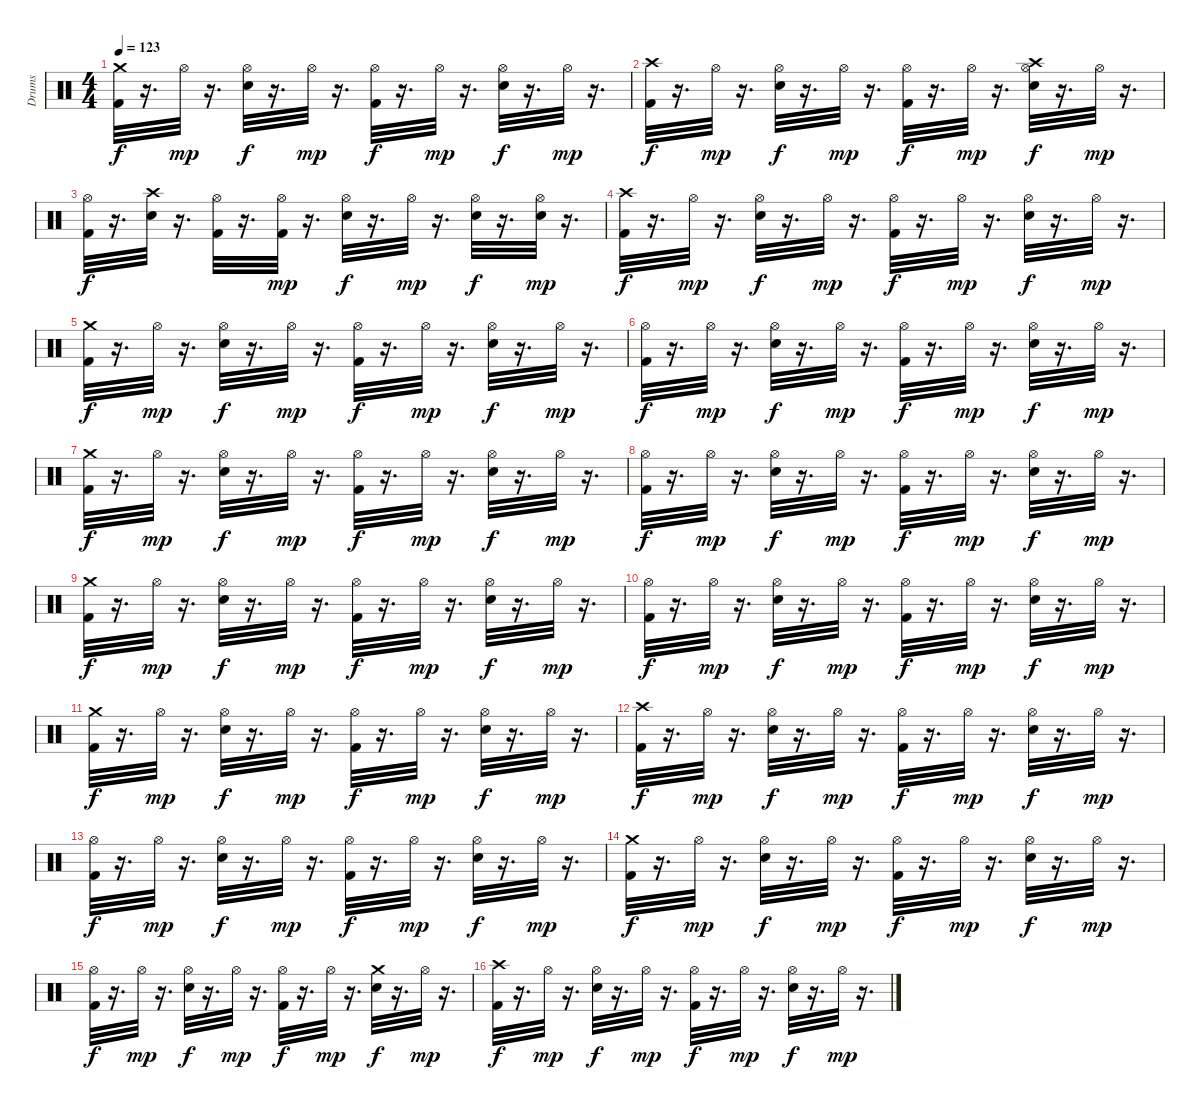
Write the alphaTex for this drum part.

\track ("Drums" "Drums") {instrument percussion}
\staff {score}
\articulation defaults
\ts (4 4)
\tempo 123
\clef neutral
\ks c
("Crash medium (hit)" "Kick (hit) 2").32{dy f} r.16{d} "Hi-Hat (open)".32{dy mp} r.16{d} ("Hi-Hat (open)" "Electric Snare (hit)").32{dy f} r.16{d} "Hi-Hat (open)".32{dy mp} r.16{d} ("Hi-Hat (open)" "Kick (hit) 2").32{dy f} r.16{d} "Hi-Hat (open)".32{dy mp} r.16{d} ("Hi-Hat (open)" "Electric Snare (hit)").32{dy f} r.16{d} "Hi-Hat (open)".32{dy mp} r.16{d} |
("Kick (hit) 2" "Crash high (hit)").32{dy f} r.16{d} "Hi-Hat (open)".32{dy mp} r.16{d} ("Hi-Hat (open)" "Electric Snare (hit)").32{dy f} r.16{d} "Hi-Hat (open)".32{dy mp} r.16{d} ("Hi-Hat (open)" "Kick (hit) 2").32{dy f} r.16{d} "Hi-Hat (open)".32{dy mp} r.16{d} ("Hi-Hat (open)" "Crash high (hit)" "Electric Snare (hit)").32{dy f} r.16{d} "Hi-Hat (open)".32{dy mp} r.16{d} |
("Hi-Hat (open)" "Kick (hit) 2").32{dy f} r.16{d} ("Crash high (hit)" "Electric Snare (hit)").32 r.16{d} ("Hi-Hat (open)" "Kick (hit) 2").32 r.16{d} ("Hi-Hat (open)" "Kick (hit) 2").32{dy mp} r.16{d} ("Hi-Hat (open)" "Electric Snare (hit)").32{dy f} r.16{d} "Hi-Hat (open)".32{dy mp} r.16{d} ("Hi-Hat (open)" "Electric Snare (hit)").32{dy f} r.16{d} ("Hi-Hat (open)" "Electric Snare (hit)").32{dy mp} r.16{d} |
("Crash high (hit)" "Kick (hit) 2").32{dy f} r.16{d} "Hi-Hat (open)".32{dy mp} r.16{d} ("Electric Snare (hit)" "Hi-Hat (open)").32{dy f} r.16{d} "Hi-Hat (open)".32{dy mp} r.16{d} ("Kick (hit) 2" "Hi-Hat (open)").32{dy f} r.16{d} "Hi-Hat (open)".32{dy mp} r.16{d} ("Electric Snare (hit)" "Hi-Hat (open)").32{dy f} r.16{d} "Hi-Hat (open)".32{dy mp} r.16{d} |
("Crash medium (hit)" "Kick (hit) 2").32{dy f} r.16{d} "Hi-Hat (open)".32{dy mp} r.16{d} ("Hi-Hat (open)" "Electric Snare (hit)").32{dy f} r.16{d} "Hi-Hat (open)".32{dy mp} r.16{d} ("Hi-Hat (open)" "Kick (hit) 2").32{dy f} r.16{d} "Hi-Hat (open)".32{dy mp} r.16{d} ("Electric Snare (hit)" "Hi-Hat (open)").32{dy f} r.16{d} "Hi-Hat (open)".32{dy mp} r.16{d} |
("Hi-Hat (open)" "Kick (hit) 2").32{dy f} r.16{d} "Hi-Hat (open)".32{dy mp} r.16{d} ("Hi-Hat (open)" "Electric Snare (hit)").32{dy f} r.16{d} "Hi-Hat (open)".32{dy mp} r.16{d} ("Hi-Hat (open)" "Kick (hit) 2").32{dy f} r.16{d} "Hi-Hat (open)".32{dy mp} r.16{d} ("Hi-Hat (open)" "Electric Snare (hit)").32{dy f} r.16{d} "Hi-Hat (open)".32{dy mp} r.16{d} |
("Crash medium (hit)" "Kick (hit) 2").32{dy f} r.16{d} "Hi-Hat (open)".32{dy mp} r.16{d} ("Hi-Hat (open)" "Electric Snare (hit)").32{dy f} r.16{d} "Hi-Hat (open)".32{dy mp} r.16{d} ("Hi-Hat (open)" "Kick (hit) 2").32{dy f} r.16{d} "Hi-Hat (open)".32{dy mp} r.16{d} ("Electric Snare (hit)" "Hi-Hat (open)").32{dy f} r.16{d} "Hi-Hat (open)".32{dy mp} r.16{d} |
("Hi-Hat (open)" "Kick (hit) 2").32{dy f} r.16{d} "Hi-Hat (open)".32{dy mp} r.16{d} ("Hi-Hat (open)" "Electric Snare (hit)").32{dy f} r.16{d} "Hi-Hat (open)".32{dy mp} r.16{d} ("Hi-Hat (open)" "Kick (hit) 2").32{dy f} r.16{d} "Hi-Hat (open)".32{dy mp} r.16{d} ("Hi-Hat (open)" "Electric Snare (hit)").32{dy f} r.16{d} "Hi-Hat (open)".32{dy mp} r.16{d} |
("Crash medium (hit)" "Kick (hit) 2").32{dy f} r.16{d} "Hi-Hat (open)".32{dy mp} r.16{d} ("Hi-Hat (open)" "Electric Snare (hit)").32{dy f} r.16{d} "Hi-Hat (open)".32{dy mp} r.16{d} ("Hi-Hat (open)" "Kick (hit) 2").32{dy f} r.16{d} "Hi-Hat (open)".32{dy mp} r.16{d} ("Electric Snare (hit)" "Hi-Hat (open)").32{dy f} r.16{d} "Hi-Hat (open)".32{dy mp} r.16{d} |
("Hi-Hat (open)" "Kick (hit) 2").32{dy f} r.16{d} "Hi-Hat (open)".32{dy mp} r.16{d} ("Hi-Hat (open)" "Electric Snare (hit)").32{dy f} r.16{d} "Hi-Hat (open)".32{dy mp} r.16{d} ("Hi-Hat (open)" "Kick (hit) 2").32{dy f} r.16{d} "Hi-Hat (open)".32{dy mp} r.16{d} ("Hi-Hat (open)" "Electric Snare (hit)").32{dy f} r.16{d} "Hi-Hat (open)".32{dy mp} r.16{d} |
("Crash medium (hit)" "Kick (hit) 2").32{dy f} r.16{d} "Hi-Hat (open)".32{dy mp} r.16{d} ("Hi-Hat (open)" "Electric Snare (hit)").32{dy f} r.16{d} "Hi-Hat (open)".32{dy mp} r.16{d} ("Hi-Hat (open)" "Kick (hit) 2").32{dy f} r.16{d} "Hi-Hat (open)".32{dy mp} r.16{d} ("Electric Snare (hit)" "Hi-Hat (open)").32{dy f} r.16{d} "Hi-Hat (open)".32{dy mp} r.16{d} |
("Crash high (hit)" "Kick (hit) 2").32{dy f} r.16{d} "Hi-Hat (open)".32{dy mp} r.16{d} ("Hi-Hat (open)" "Electric Snare (hit)").32{dy f} r.16{d} "Hi-Hat (open)".32{dy mp} r.16{d} ("Hi-Hat (open)" "Kick (hit) 2").32{dy f} r.16{d} "Hi-Hat (open)".32{dy mp} r.16{d} ("Electric Snare (hit)" "Hi-Hat (open)").32{dy f} r.16{d} "Hi-Hat (open)".32{dy mp} r.16{d} |
("Kick (hit) 2" "Hi-Hat (open)").32{dy f} r.16{d} "Hi-Hat (open)".32{dy mp} r.16{d} ("Electric Snare (hit)" "Hi-Hat (open)").32{dy f} r.16{d} "Hi-Hat (open)".32{dy mp} r.16{d} ("Kick (hit) 2" "Hi-Hat (open)").32{dy f} r.16{d} "Hi-Hat (open)".32{dy mp} r.16{d} ("Electric Snare (hit)" "Hi-Hat (open)").32{dy f} r.16{d} "Hi-Hat (open)".32{dy mp} r.16{d} |
("Kick (hit) 2" "Crash medium (hit)").32{dy f} r.16{d} "Hi-Hat (open)".32{dy mp} r.16{d} ("Electric Snare (hit)" "Hi-Hat (open)").32{dy f} r.16{d} "Hi-Hat (open)".32{dy mp} r.16{d} ("Kick (hit) 2" "Hi-Hat (open)").32{dy f} r.16{d} "Hi-Hat (open)".32{dy mp} r.16{d} ("Electric Snare (hit)" "Hi-Hat (open)").32{dy f} r.16{d} "Hi-Hat (open)".32{dy mp} r.16{d} |
("Kick (hit) 2" "Hi-Hat (open)").32{dy f} r.16{d} "Hi-Hat (open)".32{dy mp} r.16{d} ("Electric Snare (hit)" "Hi-Hat (open)").32{dy f} r.16{d} "Hi-Hat (open)".32{dy mp} r.16{d} ("Kick (hit) 2" "Hi-Hat (open)").32{dy f} r.16{d} "Hi-Hat (open)".32{dy mp} r.16{d} ("Electric Snare (hit)" "Crash medium (hit)").32{dy f} r.16{d} "Hi-Hat (open)".32{dy mp} r.16{d} |
("Crash high (hit)" "Kick (hit) 2").32{dy f} r.16{d} "Hi-Hat (open)".32{dy mp} r.16{d} ("Hi-Hat (open)" "Electric Snare (hit)").32{dy f} r.16{d} "Hi-Hat (open)".32{dy mp} r.16{d} ("Hi-Hat (open)" "Kick (hit) 2").32{dy f} r.16{d} "Hi-Hat (open)".32{dy mp} r.16{d} ("Electric Snare (hit)" "Hi-Hat (open)").32{dy f} r.16{d} "Hi-Hat (open)".32{dy mp} r.16{d}
